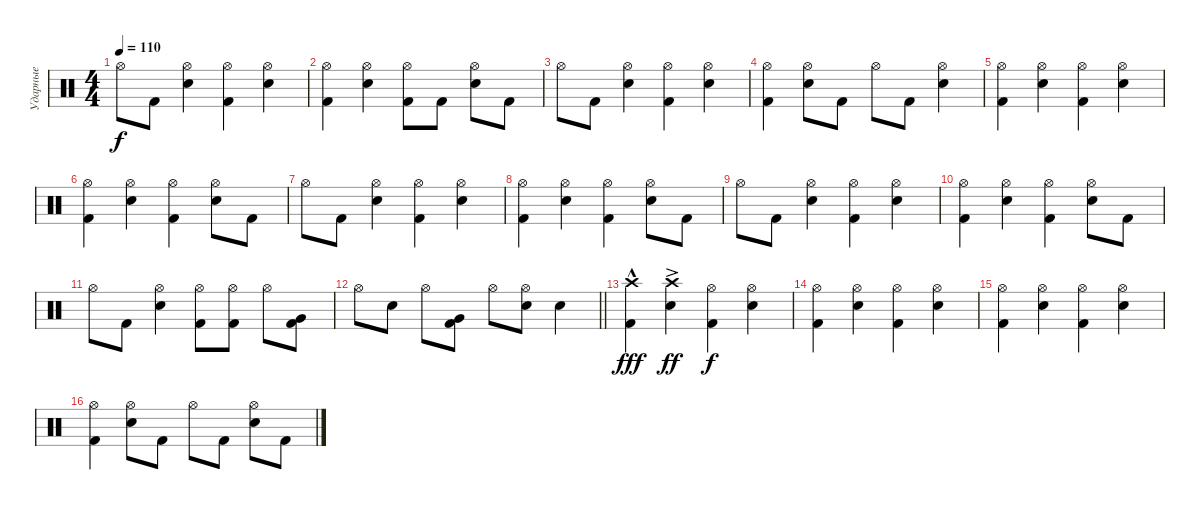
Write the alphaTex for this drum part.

\track ("Ударные" "Ударные") {instrument percussion}
\staff {score}
\articulation defaults
\ts (4 4)
\tempo 110
\clef neutral
\ks c "Hi-Hat (open)".8{dy f} "Kick (hit) 2".8
("Snare (hit) 2" "Hi-Hat (open)").4 ("Kick (hit) 2" "Hi-Hat (open)").4 ("Snare (hit) 2" "Hi-Hat (open)").4 |
("Kick (hit) 2" "Hi-Hat (open)").4 ("Snare (hit) 2" "Hi-Hat (open)").4 ("Kick (hit) 2" "Hi-Hat (open)").8 "Kick (hit) 2".8 ("Snare (hit) 2" "Hi-Hat (open)").8 "Kick (hit) 2".8 |
"Hi-Hat (open)".8 "Kick (hit) 2".8 ("Snare (hit) 2" "Hi-Hat (open)").4 ("Kick (hit) 2" "Hi-Hat (open)").4 ("Snare (hit) 2" "Hi-Hat (open)").4 |
("Kick (hit) 2" "Hi-Hat (open)").4 ("Snare (hit) 2" "Hi-Hat (open)").8 "Kick (hit) 2".8 "Hi-Hat (open)".8 "Kick (hit) 2".8 ("Snare (hit) 2" "Hi-Hat (open)").4 |
("Kick (hit) 2" "Hi-Hat (open)").4 ("Snare (hit) 2" "Hi-Hat (open)").4 ("Kick (hit) 2" "Hi-Hat (open)").4 ("Snare (hit) 2" "Hi-Hat (open)").4 |
("Kick (hit) 2" "Hi-Hat (open)").4 ("Snare (hit) 2" "Hi-Hat (open)").4 ("Kick (hit) 2" "Hi-Hat (open)").4 ("Snare (hit) 2" "Hi-Hat (open)").8 "Kick (hit) 2".8 |
"Hi-Hat (open)".8 "Kick (hit) 2".8 ("Snare (hit) 2" "Hi-Hat (open)").4 ("Kick (hit) 2" "Hi-Hat (open)").4 ("Snare (hit) 2" "Hi-Hat (open)").4 |
("Kick (hit) 2" "Hi-Hat (open)").4 ("Snare (hit) 2" "Hi-Hat (open)").4 ("Kick (hit) 2" "Hi-Hat (open)").4 ("Snare (hit) 2" "Hi-Hat (open)").8 "Kick (hit) 2".8 |
"Hi-Hat (open)".8 "Kick (hit) 2".8 ("Snare (hit) 2" "Hi-Hat (open)").4 ("Kick (hit) 2" "Hi-Hat (open)").4 ("Snare (hit) 2" "Hi-Hat (open)").4 |
("Kick (hit) 2" "Hi-Hat (open)").4 ("Snare (hit) 2" "Hi-Hat (open)").4 ("Kick (hit) 2" "Hi-Hat (open)").4 ("Snare (hit) 2" "Hi-Hat (open)").8 "Kick (hit) 2".8 |
"Hi-Hat (open)".8 "Kick (hit) 2".8 ("Snare (hit) 2" "Hi-Hat (open)").4 ("Kick (hit) 2" "Hi-Hat (open)").8 ("Kick (hit) 2" "Hi-Hat (open)").8 "Hi-Hat (open)".8 ("Kick (hit) 2" "Very Low Tom (hit)").8 |
\barLineRight lightlight "Hi-Hat (open)".8 "Snare (hit) 2".8 "Hi-Hat (open)".8
("Kick (hit) 2" "Very Low Tom (hit)").8 "Hi-Hat (open)".8 ("Snare (hit) 2" "Hi-Hat (open)").8 "Snare (hit) 2".4 |
("Kick (hit) 2" "Crash high (hit)"{hac}).4{dy fff} ("Snare (hit) 2" "Crash high (hit)"{ac}).4{dy ff} ("Kick (hit) 2" "Hi-Hat (open)").4{dy f} ("Snare (hit) 2" "Hi-Hat (open)").4 |
("Kick (hit) 2" "Hi-Hat (open)").4 ("Snare (hit) 2" "Hi-Hat (open)").4 ("Kick (hit) 2" "Hi-Hat (open)").4 ("Snare (hit) 2" "Hi-Hat (open)").4 |
("Kick (hit) 2" "Hi-Hat (open)").4 ("Snare (hit) 2" "Hi-Hat (open)").4 ("Kick (hit) 2" "Hi-Hat (open)").4 ("Snare (hit) 2" "Hi-Hat (open)").4 |
("Kick (hit) 2" "Hi-Hat (open)").4 ("Snare (hit) 2" "Hi-Hat (open)").8 "Kick (hit) 2".8 "Hi-Hat (open)".8 "Kick (hit) 2".8 ("Snare (hit) 2" "Hi-Hat (open)").8 "Kick (hit) 2".8
